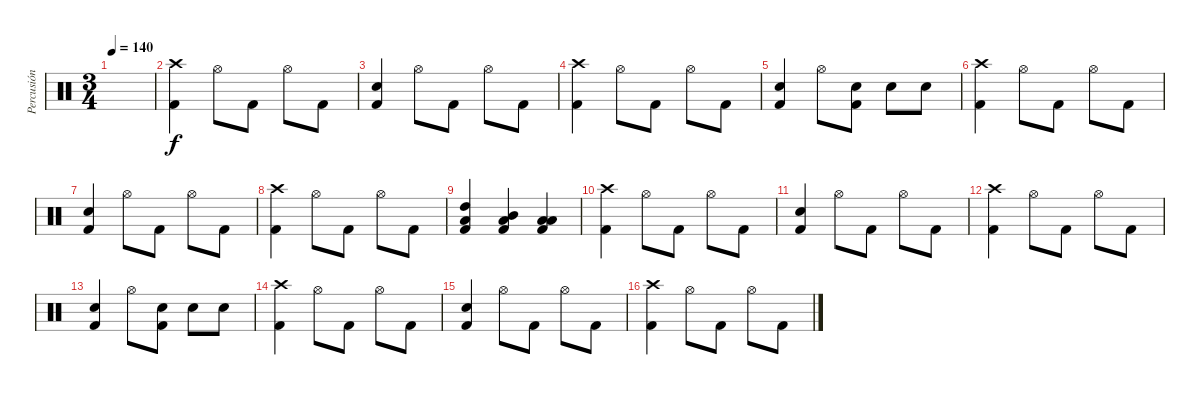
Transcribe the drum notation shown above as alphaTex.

\track ("Percusión" "Percusión") {instrument percussion}
\staff {score}
\articulation defaults
\ts (3 4)
\tempo 140
\clef neutral
\ks c
|
("Crash high (hit)" "Kick (hit) 2").4 "Hi-Hat (open)".8 "Kick (hit) 2".8 "Hi-Hat (open)".8 "Kick (hit) 2".8 |
("Electric Snare (hit)" "Kick (hit) 2").4 "Hi-Hat (open)".8 "Kick (hit) 2".8 "Hi-Hat (open)".8 "Kick (hit) 2".8 |
("Crash high (hit)" "Kick (hit) 2").4 "Hi-Hat (open)".8 "Kick (hit) 2".8 "Hi-Hat (open)".8 "Kick (hit) 2".8 |
("Electric Snare (hit)" "Kick (hit) 2").4 "Hi-Hat (open)".8 ("Electric Snare (hit)" "Kick (hit) 2").8 "Electric Snare (hit)".8 "Electric Snare (hit)".8 |
("Crash high (hit)" "Kick (hit) 2").4 "Hi-Hat (open)".8 "Kick (hit) 2".8 "Hi-Hat (open)".8 "Kick (hit) 2".8 |
("Electric Snare (hit)" "Kick (hit) 2").4 "Hi-Hat (open)".8 "Kick (hit) 2".8 "Hi-Hat (open)".8 "Kick (hit) 2".8 |
("Crash high (hit)" "Kick (hit) 2").4 "Hi-Hat (open)".8 "Kick (hit) 2".8 "Hi-Hat (open)".8 "Kick (hit) 2".8 |
("High Tom (hit)" "Low Floor Tom (hit)" "Kick (hit) 2").4 ("Mid Tom (hit)" "Low Floor Tom (hit)" "Kick (hit) 2").4 ("Low Tom (hit)" "Low Floor Tom (hit)" "Kick (hit) 2").4 |
("Crash high (hit)" "Kick (hit) 2").4 "Hi-Hat (open)".8 "Kick (hit) 2".8 "Hi-Hat (open)".8 "Kick (hit) 2".8 |
("Electric Snare (hit)" "Kick (hit) 2").4 "Hi-Hat (open)".8 "Kick (hit) 2".8 "Hi-Hat (open)".8 "Kick (hit) 2".8 |
("Crash high (hit)" "Kick (hit) 2").4 "Hi-Hat (open)".8 "Kick (hit) 2".8 "Hi-Hat (open)".8 "Kick (hit) 2".8 |
("Electric Snare (hit)" "Kick (hit) 2").4 "Hi-Hat (open)".8 ("Electric Snare (hit)" "Kick (hit) 2").8 "Electric Snare (hit)".8 "Electric Snare (hit)".8 |
("Crash high (hit)" "Kick (hit) 2").4 "Hi-Hat (open)".8 "Kick (hit) 2".8 "Hi-Hat (open)".8 "Kick (hit) 2".8 |
("Electric Snare (hit)" "Kick (hit) 2").4 "Hi-Hat (open)".8 "Kick (hit) 2".8 "Hi-Hat (open)".8 "Kick (hit) 2".8 |
("Crash high (hit)" "Kick (hit) 2").4 "Hi-Hat (open)".8 "Kick (hit) 2".8 "Hi-Hat (open)".8 "Kick (hit) 2".8
